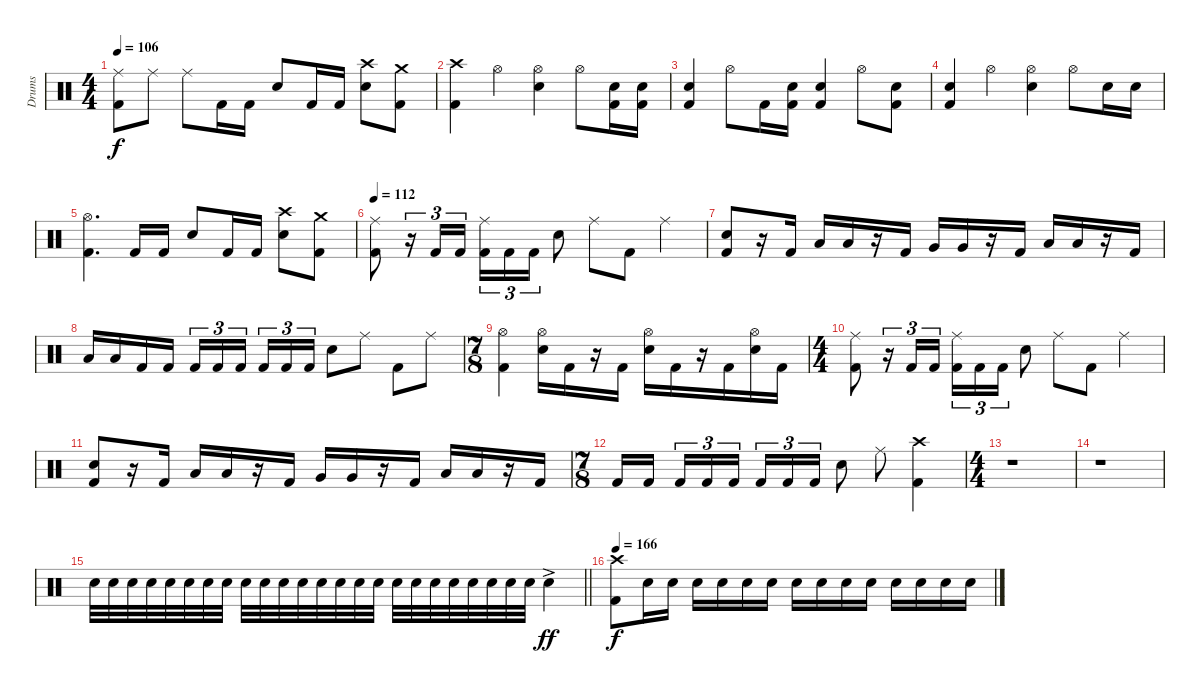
\track ("Drums" "Drums") {instrument percussion}
\staff {score}
\articulation defaults
\ts (4 4)
\tempo 106
\clef neutral
\ks c
("Ride (middle)" "Kick (hit) 2").8{dy f} "Ride (middle)".8 "Ride (middle)".8 "Kick (hit) 2".16 "Kick (hit) 2".16 "Electric Snare (hit)".8 "Kick (hit) 2".16 "Kick (hit) 2".16 ("Crash high (hit)" "Electric Snare (hit)").8 ("Crash medium (hit)" "Kick (hit) 2").8 |
("Crash high (hit)" "Kick (hit) 2").4 "Hi-Hat (open)".4 ("Hi-Hat (open)" "Electric Snare (hit)").4 "Hi-Hat (open)".8 ("Electric Snare (hit)" "Kick (hit) 2").16 ("Electric Snare (hit)" "Kick (hit) 2").16 |
("Electric Snare (hit)" "Kick (hit) 2").4 "Hi-Hat (open)".8 "Kick (hit) 2".16 ("Electric Snare (hit)" "Kick (hit) 2").16 ("Electric Snare (hit)" "Kick (hit) 2").4 "Hi-Hat (open)".8 ("Electric Snare (hit)" "Kick (hit) 2").8 |
("Electric Snare (hit)" "Kick (hit) 2").4 "Hi-Hat (open)".4 ("Hi-Hat (open)" "Electric Snare (hit)").4 "Hi-Hat (open)".8 "Electric Snare (hit)".16 "Electric Snare (hit)".16 |
("Hi-Hat (open)" "Kick (hit) 2").4{d} "Kick (hit) 2".16 "Kick (hit) 2".16 "Electric Snare (hit)".8 "Kick (hit) 2".16 "Kick (hit) 2".16 ("Crash high (hit)" "Electric Snare (hit)").8 ("Crash medium (hit)" "Kick (hit) 2").8 |
\tempo 112
("Ride (middle)" "Kick (hit) 2").8 r.16{tu (3 2)} "Kick (hit) 2".16{tu (3 2)} "Kick (hit) 2".16{tu (3 2)} ("Ride (middle)" "Kick (hit) 2").16{tu (3 2)} "Kick (hit) 2".16{tu (3 2)} "Kick (hit) 2".16{tu (3 2)} "Electric Snare (hit)".8 "Ride (middle)".8 "Kick (hit) 2".8 "Ride (middle)".4 |
("Electric Snare (hit)" "Kick (hit) 2").8 r.16 "Kick (hit) 2".16 "Low Tom (hit)".16 "Low Tom (hit)".16 r.16 "Kick (hit) 2".16 "Very Low Tom (hit)".16 "Very Low Tom (hit)".16 r.16 "Kick (hit) 2".16 "Low Floor Tom (hit)".16 "Low Floor Tom (hit)".16 r.16 "Kick (hit) 2".16 |
"Low Floor Tom (hit)".16 "Low Floor Tom (hit)".16 "Kick (hit) 2".16 "Kick (hit) 2".16 "Kick (hit) 2".16{tu (3 2)} "Kick (hit) 2".16{tu (3 2)} "Kick (hit) 2".16{tu (3 2) beam splitsecondary} "Kick (hit) 2".16{tu (3 2)} "Kick (hit) 2".16{tu (3 2)} "Kick (hit) 2".16{tu (3 2)} "Electric Snare (hit)".8 "Ride (middle)".8 "Kick (hit) 2".8 "Ride (middle)".8 |
\ts (7 8)
("Hi-Hat (open)" "Kick (hit) 2").4 ("Hi-Hat (open)" "Electric Snare (hit)").16 "Kick (hit) 2".16 r.16 "Kick (hit) 2".16 ("Hi-Hat (open)" "Electric Snare (hit)").16 "Kick (hit) 2".16 r.16 "Kick (hit) 2".16 ("Hi-Hat (open)" "Electric Snare (hit)").16 "Kick (hit) 2".16 |
\ts (4 4)
("Ride (middle)" "Kick (hit) 2").8 r.16{tu (3 2)} "Kick (hit) 2".16{tu (3 2)} "Kick (hit) 2".16{tu (3 2)} ("Ride (middle)" "Kick (hit) 2").16{tu (3 2)} "Kick (hit) 2".16{tu (3 2)} "Kick (hit) 2".16{tu (3 2)} "Electric Snare (hit)".8 "Ride (middle)".8 "Kick (hit) 2".8 "Ride (middle)".4 |
("Electric Snare (hit)" "Kick (hit) 2").8 r.16 "Kick (hit) 2".16 "Low Tom (hit)".16 "Low Tom (hit)".16 r.16 "Kick (hit) 2".16 "Very Low Tom (hit)".16 "Very Low Tom (hit)".16 r.16 "Kick (hit) 2".16 "Low Floor Tom (hit)".16 "Low Floor Tom (hit)".16 r.16 "Kick (hit) 2".16 |
\ts (7 8)
"Kick (hit) 2".16 "Kick (hit) 2".16 "Kick (hit) 2".16{tu (3 2)} "Kick (hit) 2".16{tu (3 2)} "Kick (hit) 2".16{tu (3 2)} "Kick (hit) 2".16{tu (3 2)} "Kick (hit) 2".16{tu (3 2)} "Kick (hit) 2".16{tu (3 2)} "Electric Snare (hit)".8 "Ride (middle)".8 ("Crash high (hit)" "Kick (hit) 2").4 |
\ts (4 4)
r.1 |
r.1 |
\barLineRight lightlight "Electric Snare (hit)".32{volume 0} "Electric Snare (hit)".32{volume 16} "Electric Snare (hit)".32 "Electric Snare (hit)".32 "Electric Snare (hit)".32 "Electric Snare (hit)".32 "Electric Snare (hit)".32 "Electric Snare (hit)".32 "Electric Snare (hit)".32 "Electric Snare (hit)".32 "Electric Snare (hit)".32 "Electric Snare (hit)".32 "Electric Snare (hit)".32 "Electric Snare (hit)".32 "Electric Snare (hit)".32 "Electric Snare (hit)".32 "Electric Snare (hit)".32 "Electric Snare (hit)".32 "Electric Snare (hit)".32 "Electric Snare (hit)".32 "Electric Snare (hit)".32 "Electric Snare (hit)".32 "Electric Snare (hit)".32 "Electric Snare (hit)".32 "Electric Snare (hit)"{ac}.4{dy ff}
|
\tempo 166
("Crash high (hit)" "Kick (hit) 2").8{dy f} "Electric Snare (hit)".16 "Electric Snare (hit)".16 "Electric Snare (hit)".16 "Electric Snare (hit)".16 "Electric Snare (hit)".16 "Electric Snare (hit)".16 "Electric Snare (hit)".16 "Electric Snare (hit)".16 "Electric Snare (hit)".16 "Electric Snare (hit)".16 "Electric Snare (hit)".16 "Electric Snare (hit)".16 "Electric Snare (hit)".16 "Electric Snare (hit)".16
